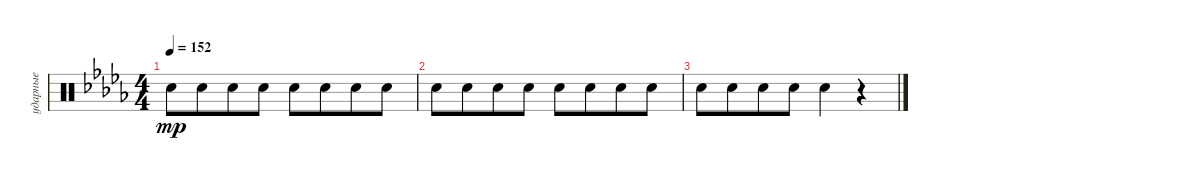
\track ("ударные" "ударные") {instrument percussion}
\staff {score}
\articulation defaults
\ts (4 4)
\tempo 152
\clef neutral
\ks bbminor "Snare (hit) 2".8{dy mp} "Snare (hit) 2".8{beam merge} "Snare (hit) 2".8 "Snare (hit) 2".8 "Snare (hit) 2".8 "Snare (hit) 2".8{beam merge} "Snare (hit) 2".8 "Snare (hit) 2".8
|
"Snare (hit) 2".8 "Snare (hit) 2".8{beam merge} "Snare (hit) 2".8 "Snare (hit) 2".8 "Snare (hit) 2".8 "Snare (hit) 2".8{beam merge} "Snare (hit) 2".8 "Snare (hit) 2".8 |
"Snare (hit) 2".8 "Snare (hit) 2".8{beam merge} "Snare (hit) 2".8 "Snare (hit) 2".8 "Snare (hit) 2".4 r.4
